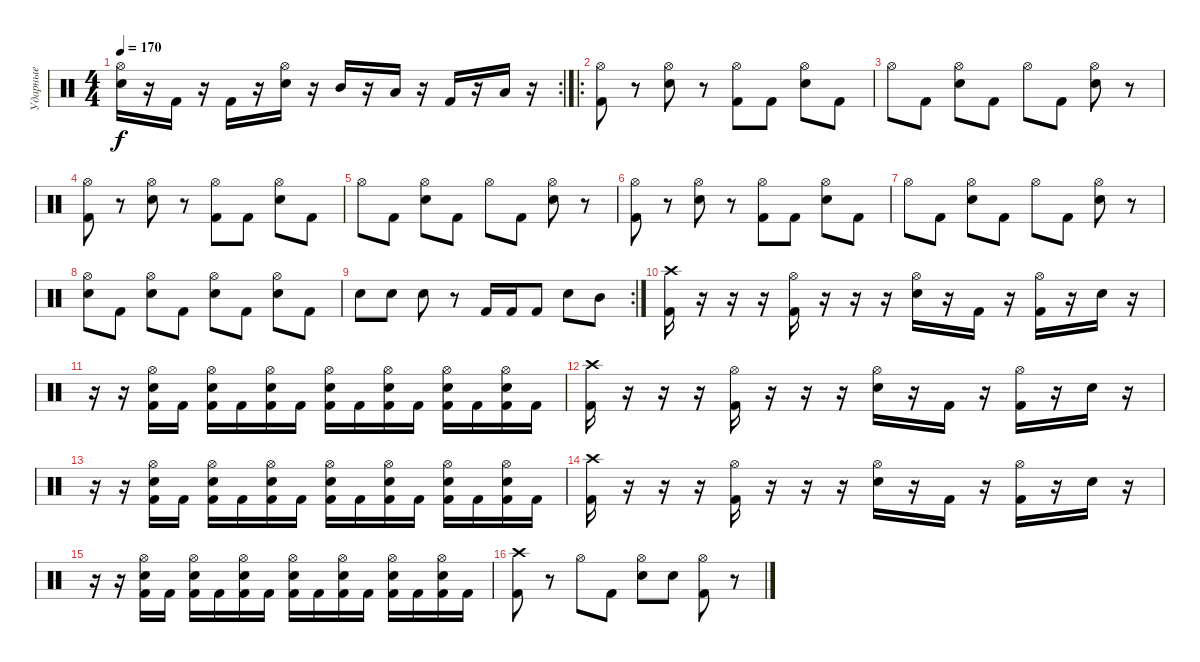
\track ("Ударные" "Ударные") {instrument percussion}
\staff {score}
\articulation defaults
\rc 2
\ts (4 4)
\tempo 170
\clef neutral
\ks c
("Hi-Hat (open)" "Electric Snare (hit)").16{dy f} r.16 "Kick (hit) 2".16 r.16 "Kick (hit) 2".16 r.16 ("Hi-Hat (open)" "Electric Snare (hit)").16 r.16 "Mid Tom (hit)".16 r.16 "Low Tom (hit)".16 r.16 "Kick (hit) 2".16 r.16 "Low Tom (hit)".16 r.16 |
\ro
("Hi-Hat (open)" "Kick (hit) 2").8 r.8 ("Hi-Hat (open)" "Electric Snare (hit)").8 r.8 ("Hi-Hat (open)" "Kick (hit) 2").8 "Kick (hit) 2".8 ("Hi-Hat (open)" "Electric Snare (hit)").8 "Kick (hit) 2".8 |
"Hi-Hat (open)".8 "Kick (hit) 2".8 ("Hi-Hat (open)" "Electric Snare (hit)").8 "Kick (hit) 2".8 "Hi-Hat (open)".8 "Kick (hit) 2".8 ("Hi-Hat (open)" "Electric Snare (hit)").8 r.8 |
("Hi-Hat (open)" "Kick (hit) 2").8 r.8 ("Hi-Hat (open)" "Electric Snare (hit)").8 r.8 ("Hi-Hat (open)" "Kick (hit) 2").8 "Kick (hit) 2".8 ("Hi-Hat (open)" "Electric Snare (hit)").8 "Kick (hit) 2".8 |
"Hi-Hat (open)".8 "Kick (hit) 2".8 ("Hi-Hat (open)" "Electric Snare (hit)").8 "Kick (hit) 2".8 "Hi-Hat (open)".8 "Kick (hit) 2".8 ("Hi-Hat (open)" "Electric Snare (hit)").8 r.8 |
("Hi-Hat (open)" "Kick (hit) 2").8 r.8 ("Hi-Hat (open)" "Electric Snare (hit)").8 r.8 ("Hi-Hat (open)" "Kick (hit) 2").8 "Kick (hit) 2".8 ("Hi-Hat (open)" "Electric Snare (hit)").8 "Kick (hit) 2".8 |
"Hi-Hat (open)".8 "Kick (hit) 2".8 ("Hi-Hat (open)" "Electric Snare (hit)").8 "Kick (hit) 2".8 "Hi-Hat (open)".8 "Kick (hit) 2".8 ("Hi-Hat (open)" "Electric Snare (hit)").8 r.8 |
("Hi-Hat (open)" "Electric Snare (hit)").8 "Kick (hit) 2".8 ("Hi-Hat (open)" "Electric Snare (hit)").8 "Kick (hit) 2".8 ("Hi-Hat (open)" "Electric Snare (hit)").8 "Kick (hit) 2".8 ("Hi-Hat (open)" "Electric Snare (hit)").8 "Kick (hit) 2".8 |
\rc 2 "Electric Snare (hit)".8 "Electric Snare (hit)".8 "Electric Snare (hit)".8
r.8 "Kick (hit) 2".16 "Kick (hit) 2".16 "Kick (hit) 2".8 "Electric Snare (hit)".8 "Mid Tom (hit)".8 |
("Crash high (hit)" "Kick (hit) 2").16 r.16 r.16 r.16 ("Hi-Hat (open)" "Kick (hit) 2").16 r.16 r.16 r.16 ("Hi-Hat (open)" "Electric Snare (hit)").16 r.16 "Kick (hit) 2".16 r.16 ("Hi-Hat (open)" "Kick (hit) 2").16 r.16 "Electric Snare (hit)".16 r.16 |
r.16 r.16 ("Hi-Hat (open)" "Electric Snare (hit)" "Kick (hit) 2").16 "Kick (hit) 2".16 ("Hi-Hat (open)" "Electric Snare (hit)" "Kick (hit) 2").16 "Kick (hit) 2".16 ("Hi-Hat (open)" "Electric Snare (hit)" "Kick (hit) 2").16 "Kick (hit) 2".16 ("Hi-Hat (open)" "Electric Snare (hit)" "Kick (hit) 2").16 "Kick (hit) 2".16 ("Hi-Hat (open)" "Electric Snare (hit)" "Kick (hit) 2").16 "Kick (hit) 2".16 ("Hi-Hat (open)" "Electric Snare (hit)" "Kick (hit) 2").16 "Kick (hit) 2".16 ("Hi-Hat (open)" "Electric Snare (hit)" "Kick (hit) 2").16 "Kick (hit) 2".16 |
("Crash high (hit)" "Kick (hit) 2").16 r.16 r.16 r.16 ("Hi-Hat (open)" "Kick (hit) 2").16 r.16 r.16 r.16 ("Hi-Hat (open)" "Electric Snare (hit)").16 r.16 "Kick (hit) 2".16 r.16 ("Hi-Hat (open)" "Kick (hit) 2").16 r.16 "Electric Snare (hit)".16 r.16 |
r.16 r.16 ("Hi-Hat (open)" "Electric Snare (hit)" "Kick (hit) 2").16 "Kick (hit) 2".16 ("Hi-Hat (open)" "Electric Snare (hit)" "Kick (hit) 2").16 "Kick (hit) 2".16 ("Hi-Hat (open)" "Electric Snare (hit)" "Kick (hit) 2").16 "Kick (hit) 2".16 ("Hi-Hat (open)" "Electric Snare (hit)" "Kick (hit) 2").16 "Kick (hit) 2".16 ("Hi-Hat (open)" "Electric Snare (hit)" "Kick (hit) 2").16 "Kick (hit) 2".16 ("Hi-Hat (open)" "Electric Snare (hit)" "Kick (hit) 2").16 "Kick (hit) 2".16 ("Hi-Hat (open)" "Electric Snare (hit)" "Kick (hit) 2").16 "Kick (hit) 2".16 |
("Crash high (hit)" "Kick (hit) 2").16 r.16 r.16 r.16 ("Hi-Hat (open)" "Kick (hit) 2").16 r.16 r.16 r.16 ("Hi-Hat (open)" "Electric Snare (hit)").16 r.16 "Kick (hit) 2".16 r.16 ("Hi-Hat (open)" "Kick (hit) 2").16 r.16 "Electric Snare (hit)".16 r.16 |
r.16 r.16 ("Hi-Hat (open)" "Electric Snare (hit)" "Kick (hit) 2").16 "Kick (hit) 2".16 ("Hi-Hat (open)" "Electric Snare (hit)" "Kick (hit) 2").16 "Kick (hit) 2".16 ("Hi-Hat (open)" "Electric Snare (hit)" "Kick (hit) 2").16 "Kick (hit) 2".16 ("Hi-Hat (open)" "Electric Snare (hit)" "Kick (hit) 2").16 "Kick (hit) 2".16 ("Hi-Hat (open)" "Electric Snare (hit)" "Kick (hit) 2").16 "Kick (hit) 2".16 ("Hi-Hat (open)" "Electric Snare (hit)" "Kick (hit) 2").16 "Kick (hit) 2".16 ("Hi-Hat (open)" "Electric Snare (hit)" "Kick (hit) 2").16 "Kick (hit) 2".16 |
("Crash high (hit)" "Kick (hit) 2").8 r.8 "Hi-Hat (open)".8 "Kick (hit) 2".8 ("Hi-Hat (open)" "Electric Snare (hit)").8 "Electric Snare (hit)".8 ("Hi-Hat (open)" "Kick (hit) 2").8 r.8
